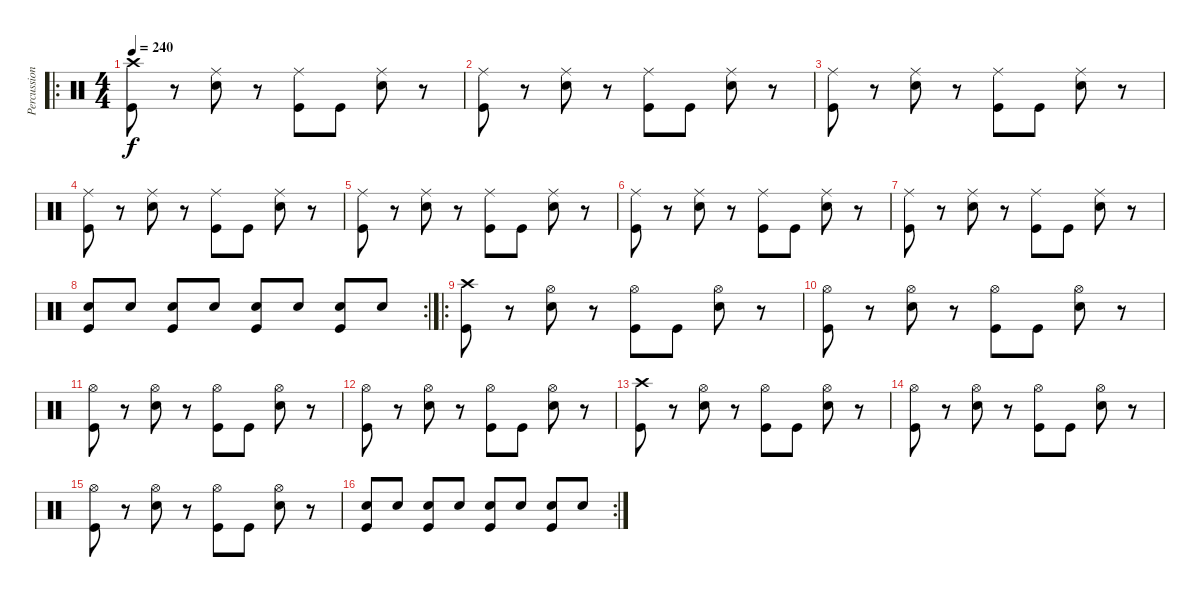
\track ("Percussion" "Percussion") {instrument percussion}
\staff {score}
\articulation defaults
\ro
\ts (4 4)
\tempo 240
\clef neutral
\ks c
("Crash high (hit)" "Kick (hit)").8{dy f} r.8 ("Ride (middle)" "Snare (hit) 2").8 r.8 ("Ride (middle)" "Kick (hit)").8 "Kick (hit)".8 ("Ride (middle)" "Snare (hit) 2").8 r.8 |
("Ride (middle)" "Kick (hit)").8 r.8 ("Ride (middle)" "Snare (hit) 2").8 r.8 ("Ride (middle)" "Kick (hit)").8 "Kick (hit)".8 ("Ride (middle)" "Snare (hit) 2").8 r.8 |
("Ride (middle)" "Kick (hit)").8 r.8 ("Ride (middle)" "Snare (hit) 2").8 r.8 ("Ride (middle)" "Kick (hit)").8 "Kick (hit)".8 ("Ride (middle)" "Snare (hit) 2").8 r.8 |
("Ride (middle)" "Kick (hit)").8 r.8 ("Ride (middle)" "Snare (hit) 2").8 r.8 ("Ride (middle)" "Kick (hit)").8 "Kick (hit)".8 ("Ride (middle)" "Snare (hit) 2").8 r.8 |
("Ride (middle)" "Kick (hit)").8 r.8 ("Ride (middle)" "Snare (hit) 2").8 r.8 ("Ride (middle)" "Kick (hit)").8 "Kick (hit)".8 ("Ride (middle)" "Snare (hit) 2").8 r.8 |
("Ride (middle)" "Kick (hit)").8 r.8 ("Ride (middle)" "Snare (hit) 2").8 r.8 ("Ride (middle)" "Kick (hit)").8 "Kick (hit)".8 ("Ride (middle)" "Snare (hit) 2").8 r.8 |
("Ride (middle)" "Kick (hit)").8 r.8 ("Ride (middle)" "Snare (hit) 2").8 r.8 ("Ride (middle)" "Kick (hit)").8 "Kick (hit)".8 ("Ride (middle)" "Snare (hit) 2").8 r.8 |
\rc 2
("Snare (hit) 2" "Kick (hit)").8 "Snare (hit) 2".8 ("Snare (hit) 2" "Kick (hit)").8 "Snare (hit) 2".8 ("Snare (hit) 2" "Kick (hit)").8 "Snare (hit) 2".8 ("Snare (hit) 2" "Kick (hit)").8 "Snare (hit) 2".8 |
\ro
("Crash high (hit)" "Kick (hit)").8 r.8 ("Hi-Hat (open)" "Snare (hit) 2").8 r.8 ("Hi-Hat (open)" "Kick (hit)").8 "Kick (hit)".8 ("Hi-Hat (open)" "Snare (hit) 2").8 r.8 |
("Hi-Hat (open)" "Kick (hit)").8 r.8 ("Hi-Hat (open)" "Snare (hit) 2").8 r.8 ("Hi-Hat (open)" "Kick (hit)").8 "Kick (hit)".8 ("Hi-Hat (open)" "Snare (hit) 2").8 r.8 |
("Hi-Hat (open)" "Kick (hit)").8 r.8 ("Hi-Hat (open)" "Snare (hit) 2").8 r.8 ("Hi-Hat (open)" "Kick (hit)").8 "Kick (hit)".8 ("Hi-Hat (open)" "Snare (hit) 2").8 r.8 |
("Hi-Hat (open)" "Kick (hit)").8 r.8 ("Hi-Hat (open)" "Snare (hit) 2").8 r.8 ("Hi-Hat (open)" "Kick (hit)").8 "Kick (hit)".8 ("Hi-Hat (open)" "Snare (hit) 2").8 r.8 |
("Crash high (hit)" "Kick (hit)").8 r.8 ("Hi-Hat (open)" "Snare (hit) 2").8 r.8 ("Hi-Hat (open)" "Kick (hit)").8 "Kick (hit)".8 ("Hi-Hat (open)" "Snare (hit) 2").8 r.8 |
("Hi-Hat (open)" "Kick (hit)").8 r.8 ("Hi-Hat (open)" "Snare (hit) 2").8 r.8 ("Hi-Hat (open)" "Kick (hit)").8 "Kick (hit)".8 ("Hi-Hat (open)" "Snare (hit) 2").8 r.8 |
("Hi-Hat (open)" "Kick (hit)").8 r.8 ("Hi-Hat (open)" "Snare (hit) 2").8 r.8 ("Hi-Hat (open)" "Kick (hit)").8 "Kick (hit)".8 ("Hi-Hat (open)" "Snare (hit) 2").8 r.8 |
\rc 2
("Snare (hit) 2" "Kick (hit)").8 "Snare (hit) 2".8 ("Snare (hit) 2" "Kick (hit)").8 "Snare (hit) 2".8 ("Snare (hit) 2" "Kick (hit)").8 "Snare (hit) 2".8 ("Snare (hit) 2" "Kick (hit)").8 "Snare (hit) 2".8
